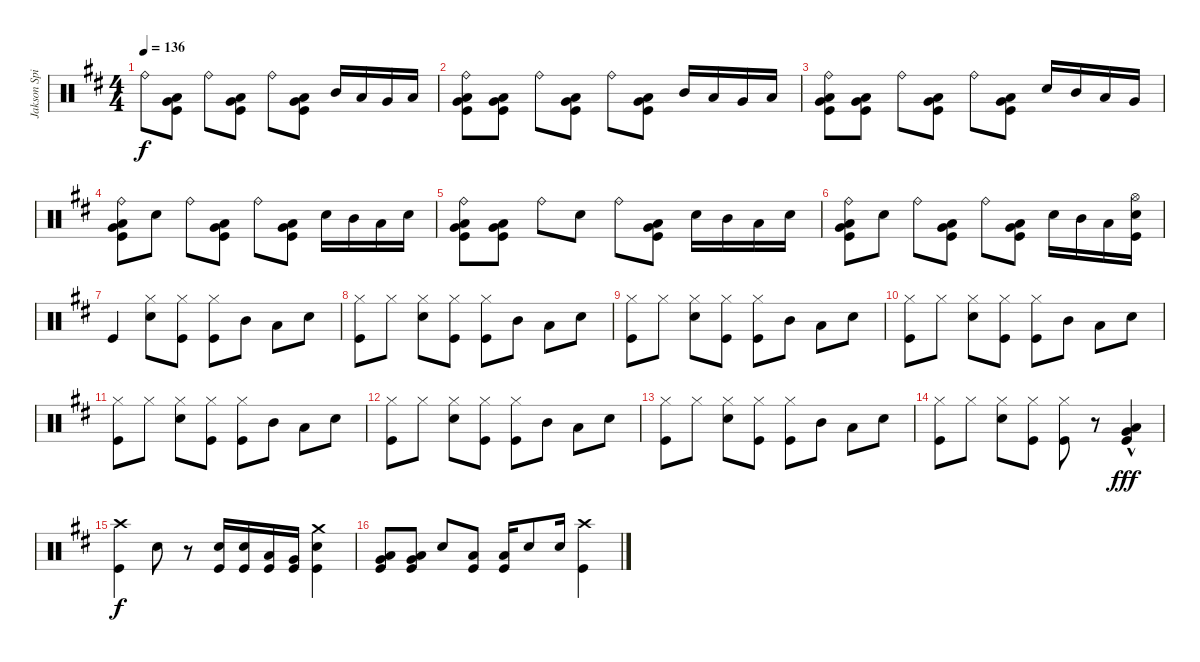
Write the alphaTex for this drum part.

\track ("Jakson Spires Drums" "Jakson Spi") {instrument percussion}
\staff {score}
\articulation defaults
\ts (4 4)
\tempo 136
\clef neutral
\ks d "Ride (bell)".8{dy f}
("Very Low Tom (hit)" "Low Floor Tom (hit)" "Kick (hit)").8 "Ride (bell)".8 ("Very Low Tom (hit)" "Low Floor Tom (hit)" "Kick (hit)").8 "Ride (bell)".8 ("Very Low Tom (hit)" "Low Floor Tom (hit)" "Kick (hit)").8 "Mid Tom (hit)".16 "Low Tom (hit)".16 "Very Low Tom (hit)".16 "Low Floor Tom (hit)".16 |
("Ride (bell)" "Very Low Tom (hit)" "Low Floor Tom (hit)" "Kick (hit)").8 ("Very Low Tom (hit)" "Low Floor Tom (hit)" "Kick (hit)").8 "Ride (bell)".8 ("Very Low Tom (hit)" "Low Floor Tom (hit)" "Kick (hit)").8 "Ride (bell)".8 ("Very Low Tom (hit)" "Low Floor Tom (hit)" "Kick (hit)").8 "Mid Tom (hit)".16 "Low Tom (hit)".16 "Very Low Tom (hit)".16 "Low Floor Tom (hit)".16 |
("Ride (bell)" "Very Low Tom (hit)" "Low Floor Tom (hit)" "Kick (hit)").8 ("Very Low Tom (hit)" "Low Floor Tom (hit)" "Kick (hit)").8 "Ride (bell)".8 ("Very Low Tom (hit)" "Low Floor Tom (hit)" "Kick (hit)").8 "Ride (bell)".8 ("Very Low Tom (hit)" "Low Floor Tom (hit)" "Kick (hit)").8 "Snare (hit) 2".16 "Mid Tom (hit)".16 "Low Tom (hit)".16 "Very Low Tom (hit)".16 |
("Ride (bell)" "Very Low Tom (hit)" "Low Floor Tom (hit)" "Kick (hit)").8 "Snare (hit) 2".8 "Ride (bell)".8 ("Very Low Tom (hit)" "Low Floor Tom (hit)" "Kick (hit)").8 "Ride (bell)".8 ("Very Low Tom (hit)" "Low Floor Tom (hit)" "Kick (hit)").8 "Snare (hit) 2".16 "Mid Tom (hit)".16 "Low Tom (hit)".16 "Snare (hit) 2".16 |
("Ride (bell)" "Very Low Tom (hit)" "Low Floor Tom (hit)" "Kick (hit)").8 ("Very Low Tom (hit)" "Low Floor Tom (hit)" "Kick (hit)").8 "Ride (bell)".8 "Snare (hit) 2".8 "Ride (bell)".8 ("Very Low Tom (hit)" "Low Floor Tom (hit)" "Kick (hit)").8 "Snare (hit) 2".16 "Mid Tom (hit)".16 "Low Tom (hit)".16 "Snare (hit) 2".16 |
("Ride (bell)" "Very Low Tom (hit)" "Low Floor Tom (hit)" "Kick (hit)").8 "Snare (hit) 2".8 "Ride (bell)".8 ("Very Low Tom (hit)" "Low Floor Tom (hit)" "Kick (hit)").8 "Ride (bell)".8 ("Very Low Tom (hit)" "Low Floor Tom (hit)" "Kick (hit)").8 "Snare (hit) 2".16 "Mid Tom (hit)".16 "Low Tom (hit)".16 ("Hi-Hat (open)" "Snare (hit) 2" "Kick (hit)").16 |
"Kick (hit)".4 ("Hi-Hat (closed)" "Snare (hit) 2").8 ("Hi-Hat (closed)" "Kick (hit)").8 ("Hi-Hat (closed)" "Kick (hit)").8 "Mid Tom (hit)".8 "Low Tom (hit)".8 "Snare (hit) 2".8 |
("Hi-Hat (closed)" "Kick (hit)").8 "Hi-Hat (closed)".8 ("Hi-Hat (closed)" "Snare (hit) 2").8 ("Hi-Hat (closed)" "Kick (hit)").8 ("Hi-Hat (closed)" "Kick (hit)").8 "Mid Tom (hit)".8 "Low Tom (hit)".8 "Snare (hit) 2".8 |
("Hi-Hat (closed)" "Kick (hit)").8 "Hi-Hat (closed)".8 ("Hi-Hat (closed)" "Snare (hit) 2").8 ("Hi-Hat (closed)" "Kick (hit)").8 ("Hi-Hat (closed)" "Kick (hit)").8 "Mid Tom (hit)".8 "Low Tom (hit)".8 "Snare (hit) 2".8 |
("Hi-Hat (closed)" "Kick (hit)").8 "Hi-Hat (closed)".8 ("Hi-Hat (closed)" "Snare (hit) 2").8 ("Hi-Hat (closed)" "Kick (hit)").8 ("Hi-Hat (closed)" "Kick (hit)").8 "Mid Tom (hit)".8 "Low Tom (hit)".8 "Snare (hit) 2".8 |
("Hi-Hat (closed)" "Kick (hit)").8 "Hi-Hat (closed)".8 ("Hi-Hat (closed)" "Snare (hit) 2").8 ("Hi-Hat (closed)" "Kick (hit)").8 ("Hi-Hat (closed)" "Kick (hit)").8 "Mid Tom (hit)".8 "Low Tom (hit)".8 "Snare (hit) 2".8 |
("Hi-Hat (closed)" "Kick (hit)").8 "Hi-Hat (closed)".8 ("Hi-Hat (closed)" "Snare (hit) 2").8 ("Hi-Hat (closed)" "Kick (hit)").8 ("Hi-Hat (closed)" "Kick (hit)").8 "Mid Tom (hit)".8 "Low Tom (hit)".8 "Snare (hit) 2".8 |
("Hi-Hat (closed)" "Kick (hit)").8 "Hi-Hat (closed)".8 ("Hi-Hat (closed)" "Snare (hit) 2").8 ("Hi-Hat (closed)" "Kick (hit)").8 ("Hi-Hat (closed)" "Kick (hit)").8 "Mid Tom (hit)".8 "Low Tom (hit)".8 "Snare (hit) 2".8 |
("Hi-Hat (closed)" "Kick (hit)").8 "Hi-Hat (closed)".8 ("Hi-Hat (closed)" "Snare (hit) 2").8 ("Hi-Hat (closed)" "Kick (hit)").8 ("Hi-Hat (closed)" "Kick (hit)").8 r.8 ("Very Low Tom (hit)" "Low Floor Tom (hit)" "Kick (hit)"{hac}).4{dy fff} |
("Crash high (hit)" "Kick (hit)").4{dy f} "Snare (hit) 2".8 r.8 ("Snare (hit) 2" "Kick (hit)").16 ("Snare (hit) 2" "Kick (hit)").16 ("Low Tom (hit)" "Kick (hit)").16 ("Very Low Tom (hit)" "Kick (hit)").16 ("Crash medium (hit)" "Snare (hit) 2" "Kick (hit)").4 |
("Very Low Tom (hit)" "Low Floor Tom (hit)" "Kick (hit)").8 ("Very Low Tom (hit)" "Low Floor Tom (hit)" "Kick (hit)").8 "Snare (hit) 2".8 ("Low Tom (hit)" "Kick (hit)").8 ("Low Tom (hit)" "Kick (hit)").16 "Snare (hit) 2".8 "Snare (hit) 2".16 ("Crash high (hit)" "Kick (hit)").4
